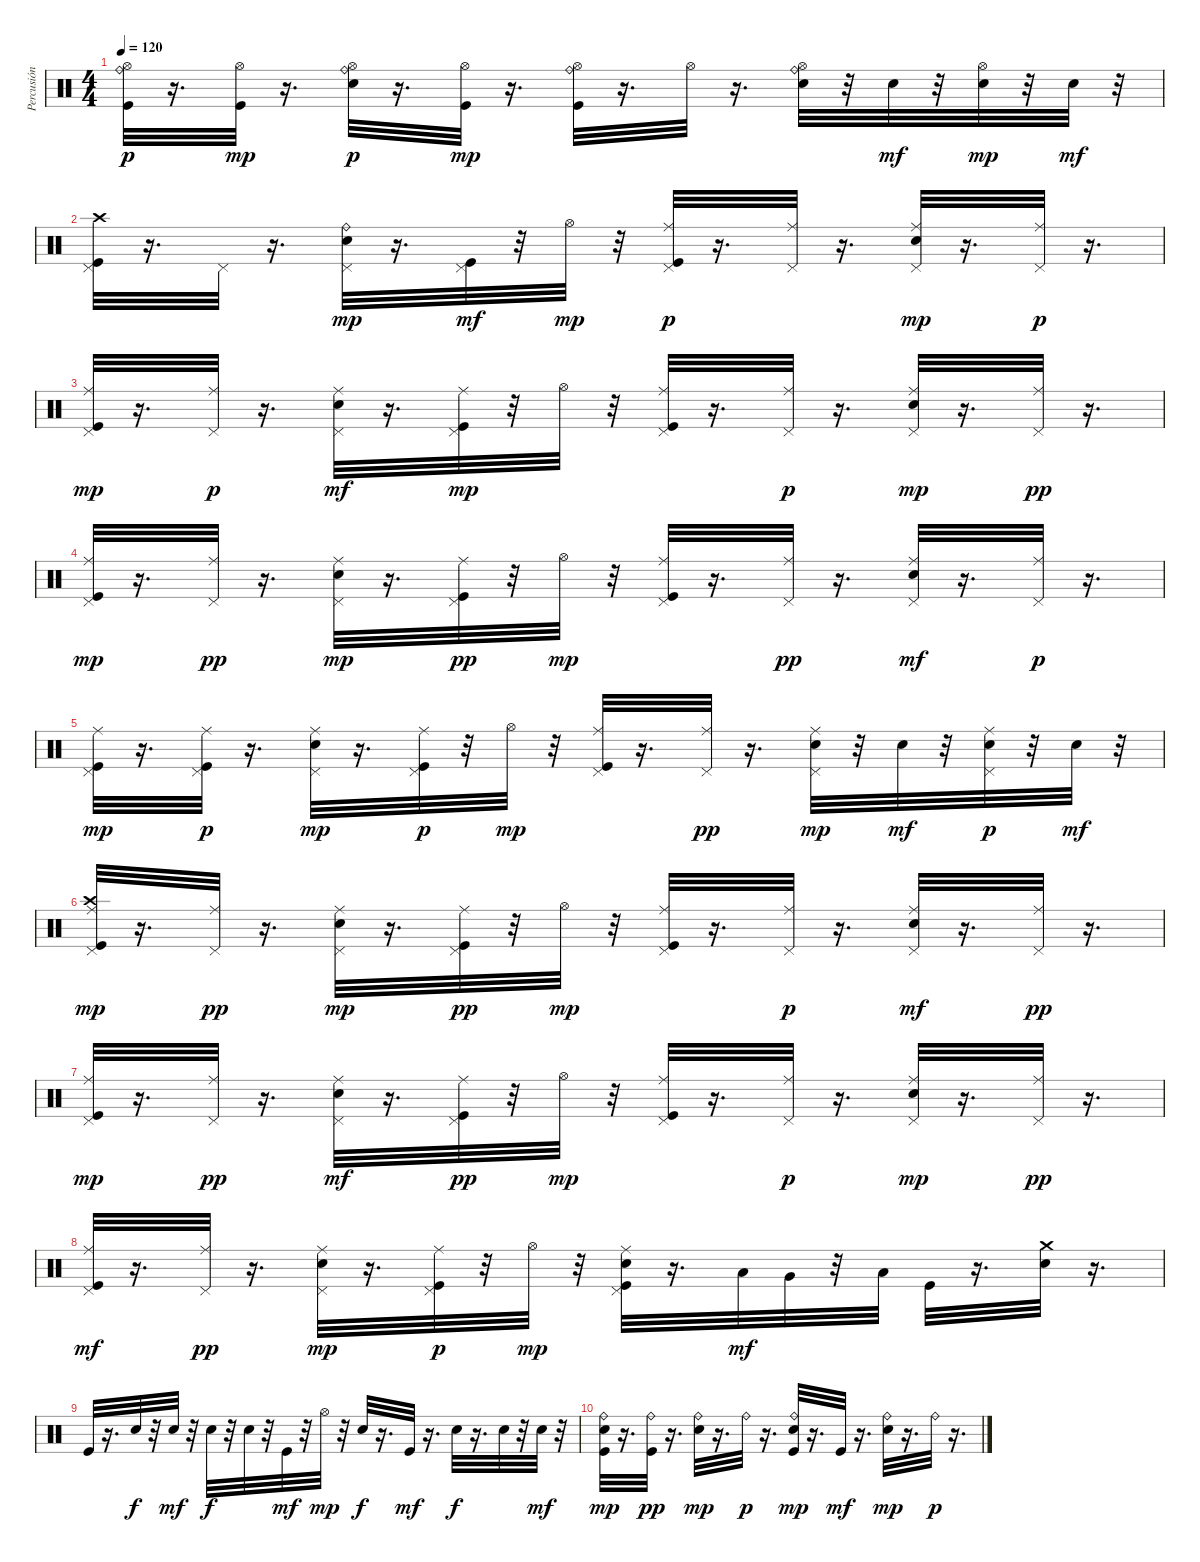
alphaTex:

\track ("Percusión" "Percusión") {instrument percussion}
\staff {score}
\articulation defaults
\ts (4 4)
\tempo 120
\clef neutral
\ks c
("Kick (hit)" "Hi-Hat (open)" "Ride (bell)").32{dy p} r.16{d} ("Kick (hit)" "Hi-Hat (open)").32{dy mp} r.16{d} ("Electric Snare (hit)" "Hi-Hat (open)" "Ride (bell)").32{dy p} r.16{d} ("Kick (hit)" "Hi-Hat (open)").32{dy mp} r.16{d} ("Kick (hit)" "Hi-Hat (open)" "Ride (bell)").32 r.16{d} "Hi-Hat (open)".32 r.16{d} ("Electric Snare (hit)" "Hi-Hat (open)" "Ride (bell)").32 r.32 "Electric Snare (hit)".32{dy mf} r.32 ("Electric Snare (hit)" "Hi-Hat (open)").32{dy mp} r.32 "Electric Snare (hit)".32{dy mf} r.32 |
("Kick (hit)" "Pedal Hi-Hat (hit)" "Crash high (hit)").32 r.16{d} "Pedal Hi-Hat (hit)".32 r.16{d} ("Electric Snare (hit)" "Pedal Hi-Hat (hit)" "Ride (bell)").32{dy mp} r.16{d} ("Kick (hit)" "Pedal Hi-Hat (hit)").32{dy mf} r.32 "Hi-Hat (open)".32{dy mp} r.32 ("Kick (hit)" "Pedal Hi-Hat (hit)" "Ride (middle)").32{dy p} r.16{d} ("Pedal Hi-Hat (hit)" "Ride (middle)").32 r.16{d} ("Electric Snare (hit)" "Pedal Hi-Hat (hit)" "Ride (middle)").32{dy mp} r.16{d} ("Pedal Hi-Hat (hit)" "Ride (middle)").32{dy p} r.16{d} |
("Kick (hit)" "Pedal Hi-Hat (hit)" "Ride (middle)").32{dy mp} r.16{d} ("Pedal Hi-Hat (hit)" "Ride (middle)").32{dy p} r.16{d} ("Electric Snare (hit)" "Pedal Hi-Hat (hit)" "Ride (middle)").32{dy mf} r.16{d} ("Kick (hit)" "Pedal Hi-Hat (hit)" "Ride (middle)").32{dy mp} r.32 "Hi-Hat (open)".32 r.32 ("Kick (hit)" "Pedal Hi-Hat (hit)" "Ride (middle)").32 r.16{d} ("Pedal Hi-Hat (hit)" "Ride (middle)").32{dy p} r.16{d} ("Electric Snare (hit)" "Pedal Hi-Hat (hit)" "Ride (middle)").32{dy mp} r.16{d} ("Pedal Hi-Hat (hit)" "Ride (middle)").32{dy pp} r.16{d} |
("Kick (hit)" "Pedal Hi-Hat (hit)" "Ride (middle)").32{dy mp} r.16{d} ("Pedal Hi-Hat (hit)" "Ride (middle)").32{dy pp} r.16{d} ("Electric Snare (hit)" "Pedal Hi-Hat (hit)" "Ride (middle)").32{dy mp} r.16{d} ("Kick (hit)" "Pedal Hi-Hat (hit)" "Ride (middle)").32{dy pp} r.32 "Hi-Hat (open)".32{dy mp} r.32 ("Kick (hit)" "Pedal Hi-Hat (hit)" "Ride (middle)").32 r.16{d} ("Pedal Hi-Hat (hit)" "Ride (middle)").32{dy pp} r.16{d} ("Electric Snare (hit)" "Pedal Hi-Hat (hit)" "Ride (middle)").32{dy mf} r.16{d} ("Pedal Hi-Hat (hit)" "Ride (middle)").32{dy p} r.16{d} |
("Kick (hit)" "Pedal Hi-Hat (hit)" "Ride (middle)").32{dy mp} r.16{d} ("Kick (hit)" "Pedal Hi-Hat (hit)" "Ride (middle)").32{dy p} r.16{d} ("Electric Snare (hit)" "Pedal Hi-Hat (hit)" "Ride (middle)").32{dy mp} r.16{d} ("Kick (hit)" "Pedal Hi-Hat (hit)" "Ride (middle)").32{dy p} r.32 "Hi-Hat (open)".32{dy mp} r.32 ("Kick (hit)" "Pedal Hi-Hat (hit)" "Ride (middle)").32 r.16{d} ("Pedal Hi-Hat (hit)" "Ride (middle)").32{dy pp} r.16{d} ("Electric Snare (hit)" "Pedal Hi-Hat (hit)" "Ride (middle)").32{dy mp} r.32 "Electric Snare (hit)".32{dy mf} r.32 ("Electric Snare (hit)" "Pedal Hi-Hat (hit)" "Ride (middle)").32{dy p} r.32 "Electric Snare (hit)".32{dy mf} r.32 |
("Kick (hit)" "Pedal Hi-Hat (hit)" "Crash high (hit)" "Ride (middle)").32{dy mp} r.16{d} ("Pedal Hi-Hat (hit)" "Ride (middle)").32{dy pp} r.16{d} ("Electric Snare (hit)" "Pedal Hi-Hat (hit)" "Ride (middle)").32{dy mp} r.16{d} ("Kick (hit)" "Pedal Hi-Hat (hit)" "Ride (middle)").32{dy pp} r.32 "Hi-Hat (open)".32{dy mp} r.32 ("Kick (hit)" "Pedal Hi-Hat (hit)" "Ride (middle)").32 r.16{d} ("Pedal Hi-Hat (hit)" "Ride (middle)").32{dy p} r.16{d} ("Electric Snare (hit)" "Pedal Hi-Hat (hit)" "Ride (middle)").32{dy mf} r.16{d} ("Pedal Hi-Hat (hit)" "Ride (middle)").32{dy pp} r.16{d} |
("Kick (hit)" "Pedal Hi-Hat (hit)" "Ride (middle)").32{dy mp} r.16{d} ("Pedal Hi-Hat (hit)" "Ride (middle)").32{dy pp} r.16{d} ("Electric Snare (hit)" "Pedal Hi-Hat (hit)" "Ride (middle)").32{dy mf} r.16{d} ("Kick (hit)" "Pedal Hi-Hat (hit)" "Ride (middle)").32{dy pp} r.32 "Hi-Hat (open)".32{dy mp} r.32 ("Kick (hit)" "Pedal Hi-Hat (hit)" "Ride (middle)").32 r.16{d} ("Pedal Hi-Hat (hit)" "Ride (middle)").32{dy p} r.16{d} ("Electric Snare (hit)" "Pedal Hi-Hat (hit)" "Ride (middle)").32{dy mp} r.16{d} ("Pedal Hi-Hat (hit)" "Ride (middle)").32{dy pp} r.16{d} |
("Kick (hit)" "Pedal Hi-Hat (hit)" "Ride (middle)").32{dy mf} r.16{d} ("Pedal Hi-Hat (hit)" "Ride (middle)").32{dy pp} r.16{d} ("Electric Snare (hit)" "Pedal Hi-Hat (hit)" "Ride (middle)").32{dy mp} r.16{d} ("Kick (hit)" "Pedal Hi-Hat (hit)" "Ride (middle)").32{dy p} r.32 "Hi-Hat (open)".32{dy mp} r.32 ("Kick (hit)" "Electric Snare (hit)" "Pedal Hi-Hat (hit)" "Ride (middle)").32 r.16{d} "Low Tom (hit)".32{dy mf} "Very Low Tom (hit)".32 r.32 "Low Floor Tom (hit)".32 "Kick (hit)".32 r.16{d} ("Electric Snare (hit)" "Crash medium (hit)").32 r.16{d} |
"Kick (hit)".32 r.16{d} "Electric Snare (hit)".32{dy f} r.32 "Electric Snare (hit)".32{dy mf} r.32 "Electric Snare (hit)".32{dy f} r.32 "Electric Snare (hit)".32 r.32 "Kick (hit)".32{dy mf} r.32 "Hi-Hat (open)".32{dy mp} r.32 "Electric Snare (hit)".32{dy f} r.16{d} "Kick (hit)".32{dy mf} r.16{d} "Electric Snare (hit)".32{dy f} r.16{d} "Electric Snare (hit)".32 r.32 "Electric Snare (hit)".32{dy mf} r.32 |
("Kick (hit)" "Electric Snare (hit)" "Ride (bell)").32{dy mp} r.16{d} ("Kick (hit)" "Ride (bell)").32{dy pp} r.16{d} ("Electric Snare (hit)" "Ride (bell)").32{dy mp} r.16{d} "Ride (bell)".32{dy p} r.16{d} ("Kick (hit)" "Electric Snare (hit)" "Ride (bell)").32{dy mp} r.16{d} "Kick (hit)".32{dy mf} r.16{d} ("Electric Snare (hit)" "Ride (bell)").32{dy mp} r.16{d} "Ride (bell)".32{dy p} r.16{d}
